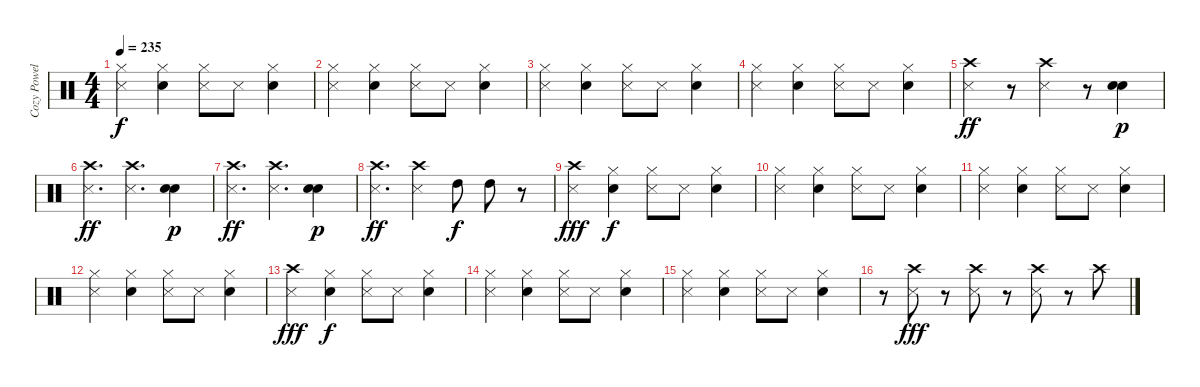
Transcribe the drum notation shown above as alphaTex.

\track ("Cozy Powell" "Cozy Powel") {instrument percussion}
\staff {score}
\articulation defaults
\ts (4 4)
\tempo 235
\clef neutral
\ks c
("Metronome (hit)" "Hi-Hat (closed)").4{dy f} ("Hi-Hat (closed)" "Electric Snare (hit)").4 ("Hi-Hat (closed)" "Metronome (hit)").8 "Metronome (hit)".8 ("Electric Snare (hit)" "Hi-Hat (closed)").4 |
("Hi-Hat (closed)" "Metronome (hit)").4 ("Electric Snare (hit)" "Hi-Hat (closed)").4 ("Metronome (hit)" "Hi-Hat (closed)").8 "Metronome (hit)".8 ("Electric Snare (hit)" "Hi-Hat (closed)").4 |
("Hi-Hat (closed)" "Metronome (hit)").4 ("Electric Snare (hit)" "Hi-Hat (closed)").4 ("Hi-Hat (closed)" "Metronome (hit)").8 "Metronome (hit)".8 ("Electric Snare (hit)" "Hi-Hat (closed)").4 |
("Hi-Hat (closed)" "Metronome (hit)").4 ("Hi-Hat (closed)" "Electric Snare (hit)").4 ("Hi-Hat (closed)" "Metronome (hit)").8 "Metronome (hit)".8 ("Electric Snare (hit)" "Hi-Hat (closed)").4 |
("Metronome (hit)" "Crash high (hit)").4{dy ff} r.8 ("Crash high (hit)" "Metronome (hit)").4 r.8 ("Electric Snare (hit)" "Electric Snare (hit)").4{dy p} |
("Metronome (hit)" "Crash high (hit)").4{d dy ff} ("Metronome (hit)" "Crash high (hit)").4{d} ("Electric Snare (hit)" "Electric Snare (hit)").4{dy p} |
("Metronome (hit)" "Crash high (hit)").4{d dy ff} ("Crash high (hit)" "Metronome (hit)").4{d} ("Electric Snare (hit)" "Electric Snare (hit)").4{dy p} |
("Crash high (hit)" "Metronome (hit)").4{d dy ff} ("Metronome (hit)" "Crash high (hit)").4 "High Tom (hit)".8{dy f} "High Tom (hit)".8 r.8 |
("Crash high (hit)" "Metronome (hit)").4{dy fff} ("Hi-Hat (closed)" "Electric Snare (hit)").4{dy f} ("Hi-Hat (closed)" "Metronome (hit)").8 "Metronome (hit)".8 ("Hi-Hat (closed)" "Electric Snare (hit)").4 |
("Hi-Hat (closed)" "Metronome (hit)").4 ("Electric Snare (hit)" "Hi-Hat (closed)").4 ("Metronome (hit)" "Hi-Hat (closed)").8 "Metronome (hit)".8 ("Electric Snare (hit)" "Hi-Hat (closed)").4 |
("Metronome (hit)" "Hi-Hat (closed)").4 ("Electric Snare (hit)" "Hi-Hat (closed)").4 ("Metronome (hit)" "Hi-Hat (closed)").8 "Metronome (hit)".8 ("Electric Snare (hit)" "Hi-Hat (closed)").4 |
("Metronome (hit)" "Hi-Hat (closed)").4 ("Electric Snare (hit)" "Hi-Hat (closed)").4 ("Metronome (hit)" "Hi-Hat (closed)").8 "Metronome (hit)".8 ("Electric Snare (hit)" "Hi-Hat (closed)").4 |
("Metronome (hit)" "Crash high (hit)").4{dy fff} ("Electric Snare (hit)" "Hi-Hat (closed)").4{dy f} ("Metronome (hit)" "Hi-Hat (closed)").8 "Metronome (hit)".8 ("Electric Snare (hit)" "Hi-Hat (closed)").4 |
("Metronome (hit)" "Hi-Hat (closed)").4 ("Electric Snare (hit)" "Hi-Hat (closed)").4 ("Metronome (hit)" "Hi-Hat (closed)").8 "Metronome (hit)".8 ("Electric Snare (hit)" "Hi-Hat (closed)").4 |
("Metronome (hit)" "Hi-Hat (closed)").4 ("Electric Snare (hit)" "Hi-Hat (closed)").4 ("Hi-Hat (closed)" "Metronome (hit)").8 "Metronome (hit)".8 ("Electric Snare (hit)" "Hi-Hat (closed)").4 |
r.8 ("Metronome (hit)" "Crash high (hit)").8{dy fff} r.8 ("Metronome (hit)" "Crash high (hit)").8 r.8 ("Metronome (hit)" "Crash high (hit)").8 r.8 "Crash high (hit)".8
